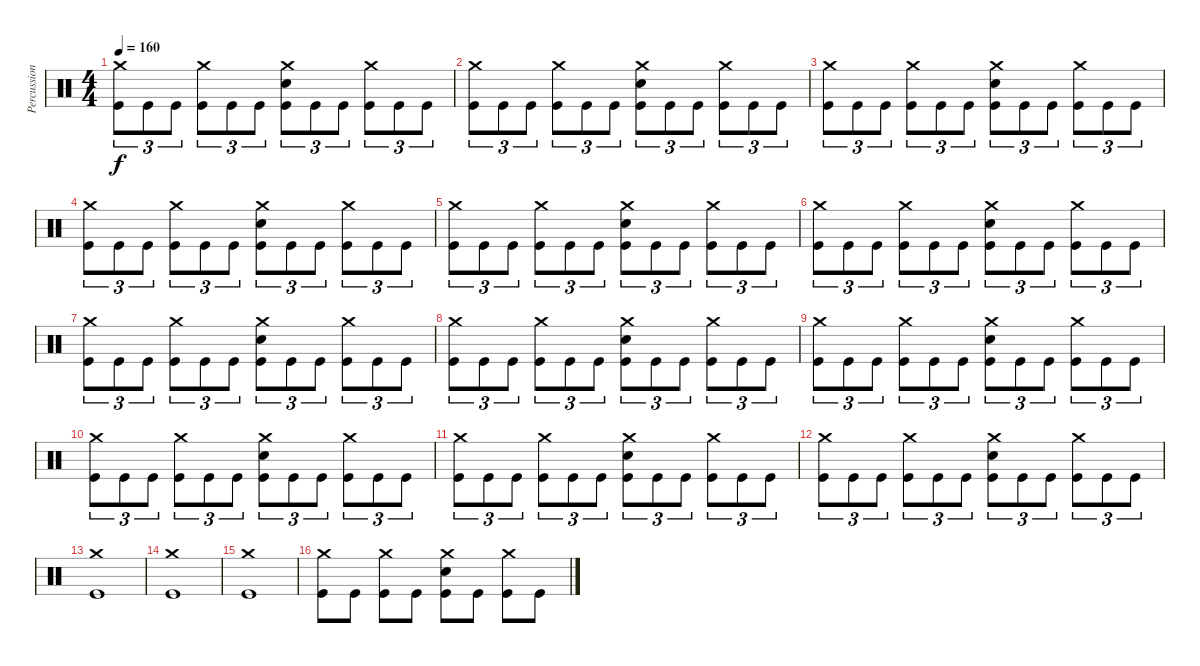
\track ("Percussion" "Percussion") {instrument percussion}
\staff {score}
\articulation defaults
\ts (4 4)
\tempo 160
\clef neutral
\ks c
("Crash medium (hit)" "Kick (hit)").8{tu (3 2) dy f} "Kick (hit)".8{tu (3 2)} "Kick (hit)".8{tu (3 2)} ("Crash medium (hit)" "Kick (hit)").8{tu (3 2)} "Kick (hit)".8{tu (3 2)} "Kick (hit)".8{tu (3 2)} ("Crash medium (hit)" "Electric Snare (hit)" "Kick (hit)").8{tu (3 2)} "Kick (hit)".8{tu (3 2)} "Kick (hit)".8{tu (3 2)} ("Crash medium (hit)" "Kick (hit)").8{tu (3 2)} "Kick (hit)".8{tu (3 2)} "Kick (hit)".8{tu (3 2)} |
("Crash medium (hit)" "Kick (hit)").8{tu (3 2)} "Kick (hit)".8{tu (3 2)} "Kick (hit)".8{tu (3 2)} ("Crash medium (hit)" "Kick (hit)").8{tu (3 2)} "Kick (hit)".8{tu (3 2)} "Kick (hit)".8{tu (3 2)} ("Crash medium (hit)" "Electric Snare (hit)" "Kick (hit)").8{tu (3 2)} "Kick (hit)".8{tu (3 2)} "Kick (hit)".8{tu (3 2)} ("Crash medium (hit)" "Kick (hit)").8{tu (3 2)} "Kick (hit)".8{tu (3 2)} "Kick (hit)".8{tu (3 2)} |
("Crash medium (hit)" "Kick (hit)").8{tu (3 2)} "Kick (hit)".8{tu (3 2)} "Kick (hit)".8{tu (3 2)} ("Crash medium (hit)" "Kick (hit)").8{tu (3 2)} "Kick (hit)".8{tu (3 2)} "Kick (hit)".8{tu (3 2)} ("Crash medium (hit)" "Electric Snare (hit)" "Kick (hit)").8{tu (3 2)} "Kick (hit)".8{tu (3 2)} "Kick (hit)".8{tu (3 2)} ("Crash medium (hit)" "Kick (hit)").8{tu (3 2)} "Kick (hit)".8{tu (3 2)} "Kick (hit)".8{tu (3 2)} |
("Crash medium (hit)" "Kick (hit)").8{tu (3 2)} "Kick (hit)".8{tu (3 2)} "Kick (hit)".8{tu (3 2)} ("Crash medium (hit)" "Kick (hit)").8{tu (3 2)} "Kick (hit)".8{tu (3 2)} "Kick (hit)".8{tu (3 2)} ("Crash medium (hit)" "Electric Snare (hit)" "Kick (hit)").8{tu (3 2)} "Kick (hit)".8{tu (3 2)} "Kick (hit)".8{tu (3 2)} ("Crash medium (hit)" "Kick (hit)").8{tu (3 2)} "Kick (hit)".8{tu (3 2)} "Kick (hit)".8{tu (3 2)} |
("Crash medium (hit)" "Kick (hit)").8{tu (3 2)} "Kick (hit)".8{tu (3 2)} "Kick (hit)".8{tu (3 2)} ("Crash medium (hit)" "Kick (hit)").8{tu (3 2)} "Kick (hit)".8{tu (3 2)} "Kick (hit)".8{tu (3 2)} ("Crash medium (hit)" "Electric Snare (hit)" "Kick (hit)").8{tu (3 2)} "Kick (hit)".8{tu (3 2)} "Kick (hit)".8{tu (3 2)} ("Crash medium (hit)" "Kick (hit)").8{tu (3 2)} "Kick (hit)".8{tu (3 2)} "Kick (hit)".8{tu (3 2)} |
("Crash medium (hit)" "Kick (hit)").8{tu (3 2)} "Kick (hit)".8{tu (3 2)} "Kick (hit)".8{tu (3 2)} ("Crash medium (hit)" "Kick (hit)").8{tu (3 2)} "Kick (hit)".8{tu (3 2)} "Kick (hit)".8{tu (3 2)} ("Crash medium (hit)" "Electric Snare (hit)" "Kick (hit)").8{tu (3 2)} "Kick (hit)".8{tu (3 2)} "Kick (hit)".8{tu (3 2)} ("Crash medium (hit)" "Kick (hit)").8{tu (3 2)} "Kick (hit)".8{tu (3 2)} "Kick (hit)".8{tu (3 2)} |
("Crash medium (hit)" "Kick (hit)").8{tu (3 2)} "Kick (hit)".8{tu (3 2)} "Kick (hit)".8{tu (3 2)} ("Crash medium (hit)" "Kick (hit)").8{tu (3 2)} "Kick (hit)".8{tu (3 2)} "Kick (hit)".8{tu (3 2)} ("Crash medium (hit)" "Electric Snare (hit)" "Kick (hit)").8{tu (3 2)} "Kick (hit)".8{tu (3 2)} "Kick (hit)".8{tu (3 2)} ("Crash medium (hit)" "Kick (hit)").8{tu (3 2)} "Kick (hit)".8{tu (3 2)} "Kick (hit)".8{tu (3 2)} |
("Crash medium (hit)" "Kick (hit)").8{tu (3 2)} "Kick (hit)".8{tu (3 2)} "Kick (hit)".8{tu (3 2)} ("Crash medium (hit)" "Kick (hit)").8{tu (3 2)} "Kick (hit)".8{tu (3 2)} "Kick (hit)".8{tu (3 2)} ("Crash medium (hit)" "Electric Snare (hit)" "Kick (hit)").8{tu (3 2)} "Kick (hit)".8{tu (3 2)} "Kick (hit)".8{tu (3 2)} ("Crash medium (hit)" "Kick (hit)").8{tu (3 2)} "Kick (hit)".8{tu (3 2)} "Kick (hit)".8{tu (3 2)} |
("Crash medium (hit)" "Kick (hit)").8{tu (3 2)} "Kick (hit)".8{tu (3 2)} "Kick (hit)".8{tu (3 2)} ("Crash medium (hit)" "Kick (hit)").8{tu (3 2)} "Kick (hit)".8{tu (3 2)} "Kick (hit)".8{tu (3 2)} ("Crash medium (hit)" "Electric Snare (hit)" "Kick (hit)").8{tu (3 2)} "Kick (hit)".8{tu (3 2)} "Kick (hit)".8{tu (3 2)} ("Crash medium (hit)" "Kick (hit)").8{tu (3 2)} "Kick (hit)".8{tu (3 2)} "Kick (hit)".8{tu (3 2)} |
("Crash medium (hit)" "Kick (hit)").8{tu (3 2)} "Kick (hit)".8{tu (3 2)} "Kick (hit)".8{tu (3 2)} ("Crash medium (hit)" "Kick (hit)").8{tu (3 2)} "Kick (hit)".8{tu (3 2)} "Kick (hit)".8{tu (3 2)} ("Crash medium (hit)" "Electric Snare (hit)" "Kick (hit)").8{tu (3 2)} "Kick (hit)".8{tu (3 2)} "Kick (hit)".8{tu (3 2)} ("Crash medium (hit)" "Kick (hit)").8{tu (3 2)} "Kick (hit)".8{tu (3 2)} "Kick (hit)".8{tu (3 2)} |
("Crash medium (hit)" "Kick (hit)").8{tu (3 2)} "Kick (hit)".8{tu (3 2)} "Kick (hit)".8{tu (3 2)} ("Crash medium (hit)" "Kick (hit)").8{tu (3 2)} "Kick (hit)".8{tu (3 2)} "Kick (hit)".8{tu (3 2)} ("Crash medium (hit)" "Electric Snare (hit)" "Kick (hit)").8{tu (3 2)} "Kick (hit)".8{tu (3 2)} "Kick (hit)".8{tu (3 2)} ("Crash medium (hit)" "Kick (hit)").8{tu (3 2)} "Kick (hit)".8{tu (3 2)} "Kick (hit)".8{tu (3 2)} |
("Crash medium (hit)" "Kick (hit)").8{tu (3 2)} "Kick (hit)".8{tu (3 2)} "Kick (hit)".8{tu (3 2)} ("Crash medium (hit)" "Kick (hit)").8{tu (3 2)} "Kick (hit)".8{tu (3 2)} "Kick (hit)".8{tu (3 2)} ("Crash medium (hit)" "Electric Snare (hit)" "Kick (hit)").8{tu (3 2)} "Kick (hit)".8{tu (3 2)} "Kick (hit)".8{tu (3 2)} ("Crash medium (hit)" "Kick (hit)").8{tu (3 2)} "Kick (hit)".8{tu (3 2)} "Kick (hit)".8{tu (3 2)} |
("Crash medium (hit)" "Kick (hit)").1 |
("Crash medium (hit)" "Kick (hit)").1 |
("Crash medium (hit)" "Kick (hit)").1 |
("Crash medium (hit)" "Kick (hit)").8 "Kick (hit)".8 ("Crash medium (hit)" "Kick (hit)").8 "Kick (hit)".8 ("Crash medium (hit)" "Electric Snare (hit)" "Kick (hit)").8 "Kick (hit)".8 ("Crash medium (hit)" "Kick (hit)").8 "Kick (hit)".8
